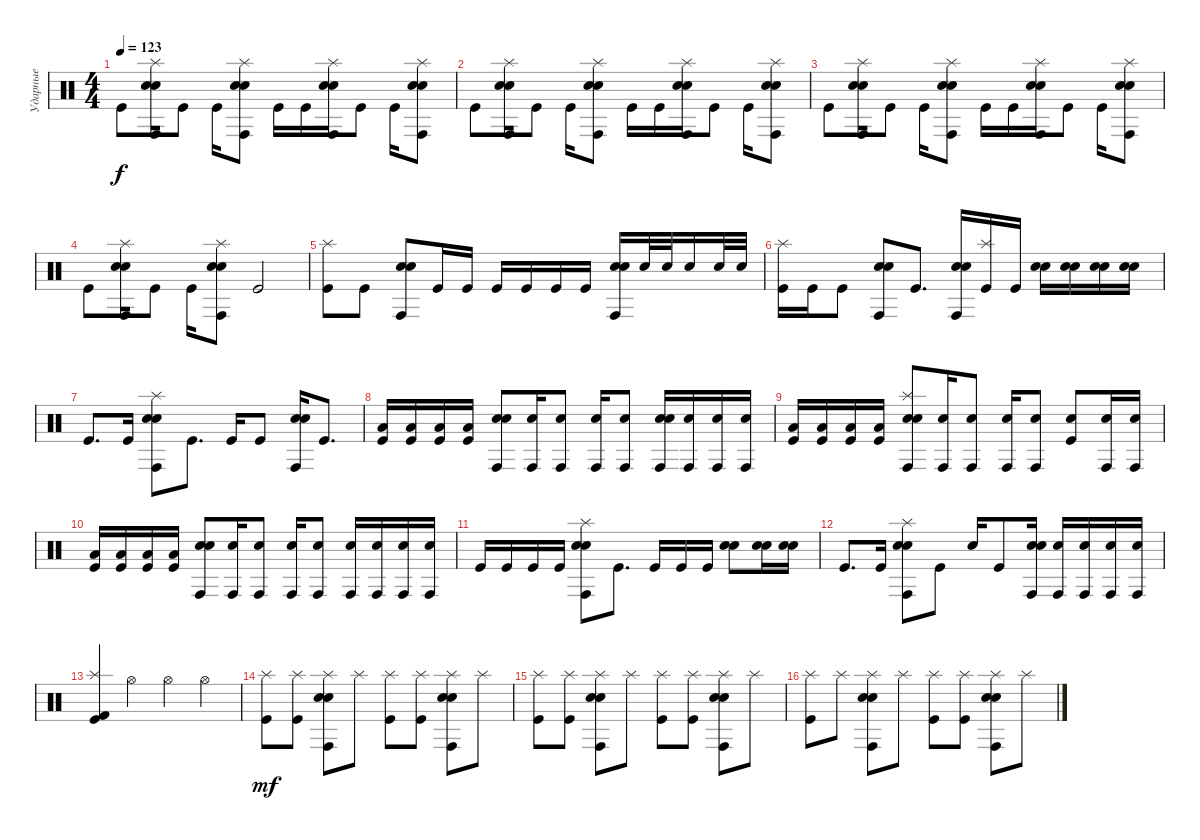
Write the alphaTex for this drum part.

\track ("Ударные" "Ударные") {instrument percussion}
\staff {score}
\articulation defaults
\ts (4 4)
\tempo 123
\clef neutral
\ks c "Kick (hit)".8{dy f}
("Splash (hit)" "Conga high (hit)" "Electric Snare (hit)" "Snare (hit) 2").16 "Kick (hit)".8 "Kick (hit)".16 ("Splash (hit)" "Conga high (hit)" "Electric Snare (hit)" "Snare (hit) 2").8 "Kick (hit)".16 "Kick (hit)".16 ("Splash (hit)" "Conga high (hit)" "Electric Snare (hit)" "Snare (hit) 2").16 "Kick (hit)".8 "Kick (hit)".16 ("Splash (hit)" "Conga high (hit)" "Electric Snare (hit)" "Snare (hit) 2").8 |
"Kick (hit)".8 ("Splash (hit)" "Conga high (hit)" "Electric Snare (hit)" "Snare (hit) 2").16 "Kick (hit)".8 "Kick (hit)".16 ("Splash (hit)" "Conga high (hit)" "Electric Snare (hit)" "Snare (hit) 2").8 "Kick (hit)".16 "Kick (hit)".16 ("Splash (hit)" "Conga high (hit)" "Electric Snare (hit)" "Snare (hit) 2").16 "Kick (hit)".8 "Kick (hit)".16 ("Splash (hit)" "Conga high (hit)" "Electric Snare (hit)" "Snare (hit) 2").8 |
"Kick (hit)".8 ("Splash (hit)" "Conga high (hit)" "Electric Snare (hit)" "Snare (hit) 2").16 "Kick (hit)".8 "Kick (hit)".16 ("Splash (hit)" "Conga high (hit)" "Electric Snare (hit)" "Snare (hit) 2").8 "Kick (hit)".16 "Kick (hit)".16 ("Splash (hit)" "Conga high (hit)" "Electric Snare (hit)" "Snare (hit) 2").16 "Kick (hit)".8 "Kick (hit)".16 ("Splash (hit)" "Conga high (hit)" "Electric Snare (hit)" "Snare (hit) 2").8 |
"Kick (hit)".8 ("Splash (hit)" "Conga high (hit)" "Electric Snare (hit)" "Snare (hit) 2").16 "Kick (hit)".8 "Kick (hit)".16 ("Splash (hit)" "Conga high (hit)" "Electric Snare (hit)" "Snare (hit) 2").8 "Kick (hit)".2 |
("Splash (hit)" "Kick (hit)").8 "Kick (hit)".8 ("Conga high (hit)" "Electric Snare (hit)" "Snare (hit) 2").8 "Kick (hit)".16 "Kick (hit)".16 "Kick (hit)".16 "Kick (hit)".16 "Kick (hit)".16 "Kick (hit)".16 ("Conga high (hit)" "Electric Snare (hit)" "Snare (hit) 2").16 "Electric Snare (hit)".32 "Electric Snare (hit)".32 "Electric Snare (hit)".16 "Electric Snare (hit)".32 "Electric Snare (hit)".32 |
("Splash (hit)" "Kick (hit)").16 "Kick (hit)".16 "Kick (hit)".8 ("Conga high (hit)" "Electric Snare (hit)" "Snare (hit) 2").8 "Kick (hit)".8{d} ("Conga high (hit)" "Electric Snare (hit)" "Snare (hit) 2").16 ("Splash (hit)" "Kick (hit)").16 "Kick (hit)".16 ("Electric Snare (hit)" "Snare (hit) 2").16 ("Electric Snare (hit)" "Snare (hit) 2").16 ("Electric Snare (hit)" "Snare (hit) 2").16 ("Electric Snare (hit)" "Snare (hit) 2").16 |
"Kick (hit)".8{d} "Kick (hit)".16 ("Splash (hit)" "Conga high (hit)" "Electric Snare (hit)" "Snare (hit) 2").8 "Kick (hit)".8{d} "Kick (hit)".16 "Kick (hit)".8 ("Conga high (hit)" "Electric Snare (hit)" "Snare (hit) 2").16 "Kick (hit)".8{d} |
("Low Floor Tom (hit)" "Kick (hit)").16 ("Low Floor Tom (hit)" "Kick (hit)").16 ("Low Floor Tom (hit)" "Kick (hit)").16 ("Low Floor Tom (hit)" "Kick (hit)").16 ("Conga high (hit)" "Electric Snare (hit)" "Snare (hit) 2").8 ("Conga high (hit)" "Electric Snare (hit)").16 ("Conga high (hit)" "Electric Snare (hit)").8 ("Conga high (hit)" "Electric Snare (hit)").16 ("Conga high (hit)" "Electric Snare (hit)").8 ("Conga high (hit)" "Electric Snare (hit)" "Snare (hit) 2").16 ("Conga high (hit)" "Electric Snare (hit)").16 ("Conga high (hit)" "Electric Snare (hit)").16 ("Conga high (hit)" "Electric Snare (hit)").16 |
("Low Floor Tom (hit)" "Kick (hit)").16 ("Low Floor Tom (hit)" "Kick (hit)").16 ("Low Floor Tom (hit)" "Kick (hit)").16 ("Low Floor Tom (hit)" "Kick (hit)").16 ("Splash (hit)" "Conga high (hit)" "Electric Snare (hit)" "Snare (hit) 2").8 ("Conga high (hit)" "Electric Snare (hit)").16 ("Conga high (hit)" "Electric Snare (hit)").8 ("Conga high (hit)" "Electric Snare (hit)").16 ("Conga high (hit)" "Electric Snare (hit)").8 ("Electric Snare (hit)" "Kick (hit)").8 ("Conga high (hit)" "Electric Snare (hit)").16 ("Conga high (hit)" "Electric Snare (hit)").16 |
("Low Floor Tom (hit)" "Kick (hit)").16 ("Low Floor Tom (hit)" "Kick (hit)").16 ("Low Floor Tom (hit)" "Kick (hit)").16 ("Low Floor Tom (hit)" "Kick (hit)").16 ("Conga high (hit)" "Electric Snare (hit)" "Snare (hit) 2").8 ("Conga high (hit)" "Electric Snare (hit)").16 ("Conga high (hit)" "Electric Snare (hit)").8 ("Conga high (hit)" "Electric Snare (hit)").16 ("Conga high (hit)" "Electric Snare (hit)").8 ("Conga high (hit)" "Electric Snare (hit)").16 ("Conga high (hit)" "Electric Snare (hit)").16 ("Conga high (hit)" "Electric Snare (hit)").16 ("Conga high (hit)" "Electric Snare (hit)").16 |
"Kick (hit)".16 "Kick (hit)".16 "Kick (hit)".16 "Kick (hit)".16 ("Splash (hit)" "Conga high (hit)" "Electric Snare (hit)" "Snare (hit) 2").8 "Kick (hit)".8{d} "Kick (hit)".16 "Kick (hit)".16 "Kick (hit)".16 ("Electric Snare (hit)" "Snare (hit) 2").8 ("Electric Snare (hit)" "Snare (hit) 2").16 ("Electric Snare (hit)" "Snare (hit) 2").16 |
"Kick (hit)".8{d} "Kick (hit)".16 ("Splash (hit)" "Conga high (hit)" "Electric Snare (hit)" "Snare (hit) 2").8 "Kick (hit)".8 "Electric Snare (hit)".16 "Kick (hit)".8 ("Conga high (hit)" "Electric Snare (hit)" "Snare (hit) 2").16 ("Conga high (hit)" "Electric Snare (hit)").16 ("Conga high (hit)" "Electric Snare (hit)").16 ("Conga high (hit)" "Electric Snare (hit)").16 ("Conga high (hit)" "Electric Snare (hit)").16 |
("Splash (hit)" "Kick (hit)" "Kick (hit) 2").4 "Hi-Hat (open)".4 "Hi-Hat (open)".4 "Hi-Hat (open)".4 |
("Splash (hit)" "Kick (hit)").8{dy mf} ("Splash (hit)" "Kick (hit)").8 ("Splash (hit)" "Conga high (hit)" "Electric Snare (hit)" "Snare (hit) 2").8 "Splash (hit)".8 ("Splash (hit)" "Kick (hit)").8 ("Splash (hit)" "Kick (hit)").8 ("Splash (hit)" "Conga high (hit)" "Electric Snare (hit)" "Snare (hit) 2").8 "Splash (hit)".8 |
("Splash (hit)" "Kick (hit)").8 ("Splash (hit)" "Kick (hit)").8 ("Splash (hit)" "Conga high (hit)" "Electric Snare (hit)" "Snare (hit) 2").8 "Splash (hit)".8 ("Splash (hit)" "Kick (hit)").8 ("Splash (hit)" "Kick (hit)").8 ("Splash (hit)" "Conga high (hit)" "Electric Snare (hit)" "Snare (hit) 2").8 "Splash (hit)".8 |
("Splash (hit)" "Kick (hit)").8 "Splash (hit)".8 ("Splash (hit)" "Conga high (hit)" "Electric Snare (hit)" "Snare (hit) 2").8 "Splash (hit)".8 ("Splash (hit)" "Kick (hit)").8 ("Splash (hit)" "Kick (hit)").8 ("Splash (hit)" "Conga high (hit)" "Electric Snare (hit)" "Snare (hit) 2").8 "Splash (hit)".8
